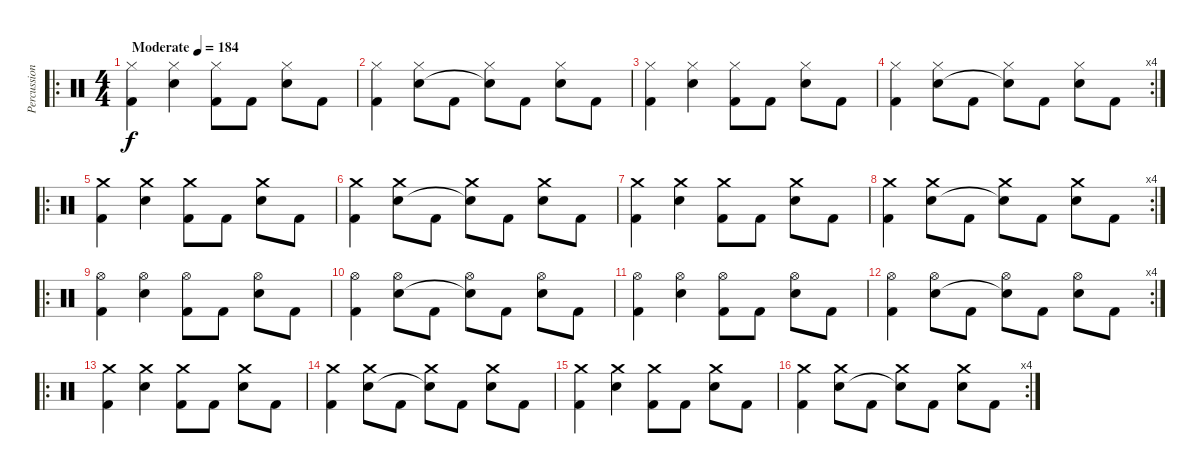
\track ("Percussion" "Percussion") {instrument percussion}
\staff {score}
\articulation defaults
\ro
\ts (4 4)
\tempo (184 "Moderate")
\clef neutral
\ks c
("Hi-Hat (closed)" "Kick (hit) 2").4{dy f volume 6} ("Hi-Hat (closed)" "Electric Snare (hit)").4 ("Hi-Hat (closed)" "Kick (hit) 2").8 "Kick (hit) 2".8 ("Hi-Hat (closed)" "Electric Snare (hit)").8 "Kick (hit) 2".8 |
("Hi-Hat (closed)" "Kick (hit) 2").4 ("Hi-Hat (closed)" "Electric Snare (hit)").8 "Kick (hit) 2".8 ("Hi-Hat (closed)" "Snare (hit)"{t}).8 "Kick (hit) 2".8 ("Hi-Hat (closed)" "Electric Snare (hit)").8 "Kick (hit) 2".8 |
("Hi-Hat (closed)" "Kick (hit) 2").4 ("Hi-Hat (closed)" "Electric Snare (hit)").4 ("Hi-Hat (closed)" "Kick (hit) 2").8 "Kick (hit) 2".8 ("Hi-Hat (closed)" "Electric Snare (hit)").8 "Kick (hit) 2".8 |
\rc 4
("Hi-Hat (closed)" "Kick (hit) 2").4 ("Hi-Hat (closed)" "Electric Snare (hit)").8 "Kick (hit) 2".8 ("Hi-Hat (closed)" "Snare (hit)"{t}).8 "Kick (hit) 2".8 ("Hi-Hat (closed)" "Electric Snare (hit)").8 "Kick (hit) 2".8 |
\ro
("Crash medium (hit)" "Kick (hit) 2").4 ("Crash medium (hit)" "Electric Snare (hit)").4 ("Crash medium (hit)" "Kick (hit) 2").8 "Kick (hit) 2".8 ("Crash medium (hit)" "Electric Snare (hit)").8 "Kick (hit) 2".8 |
("Crash medium (hit)" "Kick (hit) 2").4 ("Crash medium (hit)" "Electric Snare (hit)").8 "Kick (hit) 2".8 ("Crash medium (hit)" "Snare (hit)"{t}).8 "Kick (hit) 2".8 ("Crash medium (hit)" "Electric Snare (hit)").8 "Kick (hit) 2".8 |
("Crash medium (hit)" "Kick (hit) 2").4 ("Crash medium (hit)" "Electric Snare (hit)").4 ("Crash medium (hit)" "Kick (hit) 2").8 "Kick (hit) 2".8 ("Crash medium (hit)" "Electric Snare (hit)").8 "Kick (hit) 2".8 |
\rc 4
("Crash medium (hit)" "Kick (hit) 2").4 ("Crash medium (hit)" "Electric Snare (hit)").8 "Kick (hit) 2".8 ("Crash medium (hit)" "Snare (hit)"{t}).8 "Kick (hit) 2".8 ("Crash medium (hit)" "Electric Snare (hit)").8 "Kick (hit) 2".8 |
\ro
("Hi-Hat (open)" "Kick (hit) 2").4 ("Hi-Hat (open)" "Electric Snare (hit)").4 ("Hi-Hat (open)" "Kick (hit) 2").8 "Kick (hit) 2".8 ("Hi-Hat (open)" "Electric Snare (hit)").8 "Kick (hit) 2".8 |
("Hi-Hat (open)" "Kick (hit) 2").4 ("Hi-Hat (open)" "Electric Snare (hit)").8 "Kick (hit) 2".8 ("Hi-Hat (open)" "Snare (hit)"{t}).8 "Kick (hit) 2".8 ("Hi-Hat (open)" "Electric Snare (hit)").8 "Kick (hit) 2".8 |
("Hi-Hat (open)" "Kick (hit) 2").4 ("Hi-Hat (open)" "Electric Snare (hit)").4 ("Hi-Hat (open)" "Kick (hit) 2").8 "Kick (hit) 2".8 ("Hi-Hat (open)" "Electric Snare (hit)").8 "Kick (hit) 2".8 |
\rc 4
("Hi-Hat (open)" "Kick (hit) 2").4 ("Hi-Hat (open)" "Electric Snare (hit)").8 "Kick (hit) 2".8 ("Hi-Hat (open)" "Snare (hit)"{t}).8 "Kick (hit) 2".8 ("Hi-Hat (open)" "Electric Snare (hit)").8 "Kick (hit) 2".8 |
\ro
("Crash medium (hit)" "Kick (hit) 2").4 ("Crash medium (hit)" "Electric Snare (hit)").4 ("Crash medium (hit)" "Kick (hit) 2").8 "Kick (hit) 2".8 ("Crash medium (hit)" "Electric Snare (hit)").8 "Kick (hit) 2".8 |
("Crash medium (hit)" "Kick (hit) 2").4 ("Crash medium (hit)" "Electric Snare (hit)").8 "Kick (hit) 2".8 ("Crash medium (hit)" "Snare (hit)"{t}).8 "Kick (hit) 2".8 ("Crash medium (hit)" "Electric Snare (hit)").8 "Kick (hit) 2".8 |
("Crash medium (hit)" "Kick (hit) 2").4 ("Crash medium (hit)" "Electric Snare (hit)").4 ("Crash medium (hit)" "Kick (hit) 2").8 "Kick (hit) 2".8 ("Crash medium (hit)" "Electric Snare (hit)").8 "Kick (hit) 2".8 |
\rc 4
("Crash medium (hit)" "Kick (hit) 2").4 ("Crash medium (hit)" "Electric Snare (hit)").8 "Kick (hit) 2".8 ("Crash medium (hit)" "Snare (hit)"{t}).8 "Kick (hit) 2".8 ("Crash medium (hit)" "Electric Snare (hit)").8 "Kick (hit) 2".8
